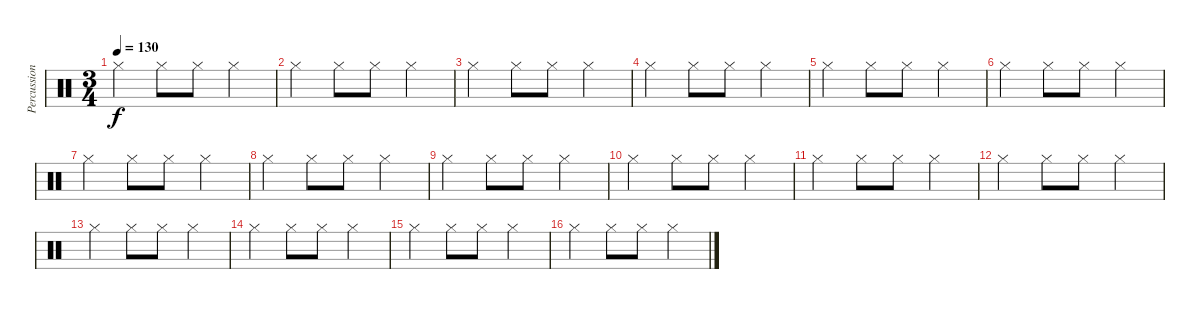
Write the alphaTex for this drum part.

\track ("Percussion" "Percussion") {instrument percussion}
\staff {score}
\articulation defaults
\ts (3 4)
\tempo 130
\clef neutral
\ks c "Hi-Hat (closed)".4{dy f} "Hi-Hat (closed)".8 "Hi-Hat (closed)".8 "Hi-Hat (closed)".4
|
"Hi-Hat (closed)".4 "Hi-Hat (closed)".8 "Hi-Hat (closed)".8 "Hi-Hat (closed)".4 |
"Hi-Hat (closed)".4 "Hi-Hat (closed)".8 "Hi-Hat (closed)".8 "Hi-Hat (closed)".4 |
"Hi-Hat (closed)".4 "Hi-Hat (closed)".8 "Hi-Hat (closed)".8 "Hi-Hat (closed)".4 |
"Hi-Hat (closed)".4 "Hi-Hat (closed)".8 "Hi-Hat (closed)".8 "Hi-Hat (closed)".4 |
"Hi-Hat (closed)".4 "Hi-Hat (closed)".8 "Hi-Hat (closed)".8 "Hi-Hat (closed)".4 |
"Hi-Hat (closed)".4 "Hi-Hat (closed)".8 "Hi-Hat (closed)".8 "Hi-Hat (closed)".4 |
"Hi-Hat (closed)".4 "Hi-Hat (closed)".8 "Hi-Hat (closed)".8 "Hi-Hat (closed)".4 |
"Hi-Hat (closed)".4 "Hi-Hat (closed)".8 "Hi-Hat (closed)".8 "Hi-Hat (closed)".4 |
"Hi-Hat (closed)".4 "Hi-Hat (closed)".8 "Hi-Hat (closed)".8 "Hi-Hat (closed)".4 |
"Hi-Hat (closed)".4 "Hi-Hat (closed)".8 "Hi-Hat (closed)".8 "Hi-Hat (closed)".4 |
"Hi-Hat (closed)".4 "Hi-Hat (closed)".8 "Hi-Hat (closed)".8 "Hi-Hat (closed)".4 |
"Hi-Hat (closed)".4 "Hi-Hat (closed)".8 "Hi-Hat (closed)".8 "Hi-Hat (closed)".4 |
"Hi-Hat (closed)".4 "Hi-Hat (closed)".8 "Hi-Hat (closed)".8 "Hi-Hat (closed)".4 |
"Hi-Hat (closed)".4 "Hi-Hat (closed)".8 "Hi-Hat (closed)".8 "Hi-Hat (closed)".4 |
"Hi-Hat (closed)".4 "Hi-Hat (closed)".8 "Hi-Hat (closed)".8 "Hi-Hat (closed)".4
